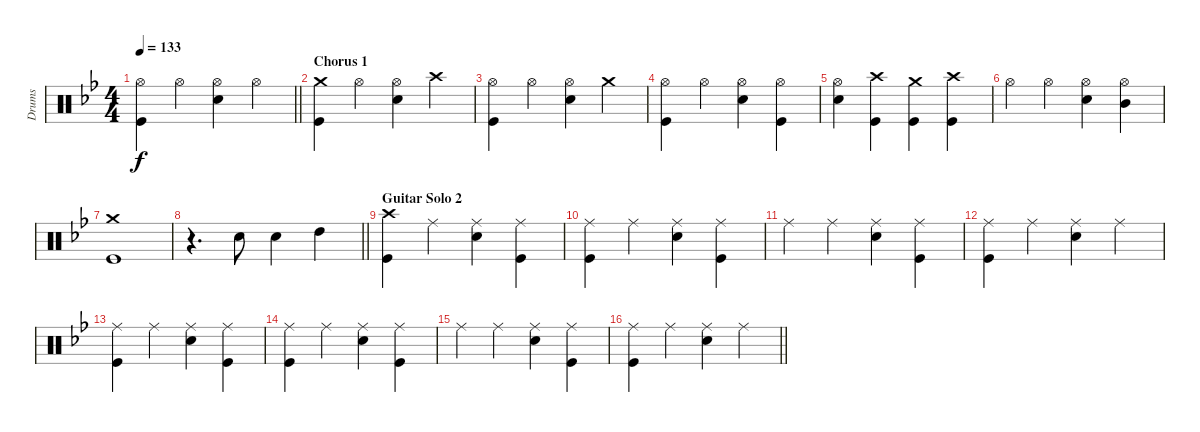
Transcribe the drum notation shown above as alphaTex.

\track ("Drums" "Drums") {instrument percussion}
\staff {score}
\articulation defaults
\ts (4 4)
\tempo 133
\clef neutral
\barLineRight lightlight
\ks bb
("Hi-Hat (open)" "Kick (hit)").4{dy f} "Hi-Hat (open)".4 ("Hi-Hat (open)" "Snare (hit) 2").4 "Hi-Hat (open)".4 |
\section ("" "Chorus 1")
("Crash medium (hit)" "Kick (hit)").4 "Hi-Hat (open)".4 ("Hi-Hat (open)" "Snare (hit) 2").4 "Crash high (hit)".4 |
("Hi-Hat (open)" "Kick (hit)").4 "Hi-Hat (open)".4 ("Hi-Hat (open)" "Snare (hit) 2").4 "Crash medium (hit)".4 |
("Hi-Hat (open)" "Kick (hit)").4 "Hi-Hat (open)".4 ("Hi-Hat (open)" "Snare (hit) 2").4 ("Hi-Hat (open)" "Kick (hit)").4 |
("Hi-Hat (open)" "Snare (hit) 2").4 ("Crash high (hit)" "Kick (hit)").4 ("Crash medium (hit)" "Kick (hit)").4 ("Crash high (hit)" "Kick (hit)").4 |
"Hi-Hat (open)".4 "Hi-Hat (open)".4 ("Hi-Hat (open)" "Snare (hit) 2").4 ("Hi-Hat (open)" "Mid Tom (hit)").4 |
("Crash medium (hit)" "Kick (hit)").1 |
\barLineRight lightlight
r.4{d} "Snare (hit) 2".8 "Snare (hit) 2".4 "High Tom (hit)".4 |
\section ("" "Guitar Solo 2")
("Crash high (hit)" "Kick (hit)").4 "Ride (middle)".4 ("Ride (middle)" "Snare (hit) 2").4 ("Ride (middle)" "Kick (hit)").4 |
("Ride (middle)" "Kick (hit)").4 "Ride (middle)".4 ("Ride (middle)" "Snare (hit) 2").4 ("Ride (middle)" "Kick (hit)").4 |
"Ride (middle)".4 "Ride (middle)".4 ("Ride (middle)" "Snare (hit) 2").4 ("Ride (middle)" "Kick (hit)").4 |
("Ride (middle)" "Kick (hit)").4 "Ride (middle)".4 ("Ride (middle)" "Snare (hit) 2").4 "Ride (middle)".4 |
("Ride (middle)" "Kick (hit)").4 "Ride (middle)".4 ("Ride (middle)" "Snare (hit) 2").4 ("Ride (middle)" "Kick (hit)").4 |
("Ride (middle)" "Kick (hit)").4 "Ride (middle)".4 ("Ride (middle)" "Snare (hit) 2").4 ("Ride (middle)" "Kick (hit)").4 |
"Ride (middle)".4 "Ride (middle)".4 ("Ride (middle)" "Snare (hit) 2").4 ("Ride (middle)" "Kick (hit)").4 |
\barLineRight lightlight
("Ride (middle)" "Kick (hit)").4 "Ride (middle)".4 ("Ride (middle)" "Snare (hit) 2").4 "Ride (middle)".4
